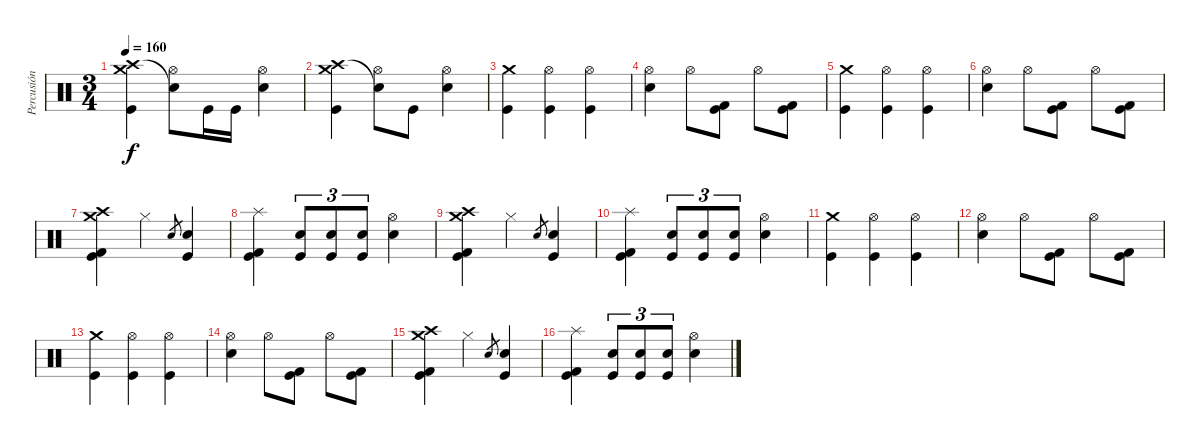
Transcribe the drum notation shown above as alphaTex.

\track ("Percusión" "Percusión") {instrument percussion}
\staff {score}
\articulation defaults
\ts (3 4)
\tempo 160
\clef neutral
\ks c
("Crash medium (hit)" "Crash high (hit)" "Kick (hit)").4{dy f} ("Hi-Hat (open)" "Snare (hit)"{t}).8 "Kick (hit)".16 "Kick (hit)".16 ("Hi-Hat (open)" "Electric Snare (hit)").4 |
("Crash medium (hit)" "Crash high (hit)" "Kick (hit)").4 ("Hi-Hat (open)" "Snare (hit)"{t}).8 "Kick (hit)".8 ("Hi-Hat (open)" "Electric Snare (hit)").4 |
("Crash medium (hit)" "Kick (hit)").4 ("Hi-Hat (open)" "Kick (hit)").4 ("Hi-Hat (open)" "Kick (hit)").4 |
("Hi-Hat (open)" "Electric Snare (hit)").4 "Hi-Hat (open)".8 ("Kick (hit) 2" "Kick (hit)").8 "Hi-Hat (open)".8 ("Kick (hit) 2" "Kick (hit)").8 |
("Crash medium (hit)" "Kick (hit)").4 ("Hi-Hat (open)" "Kick (hit)").4 ("Hi-Hat (open)" "Kick (hit)").4 |
("Hi-Hat (open)" "Electric Snare (hit)").4 "Hi-Hat (open)".8 ("Kick (hit) 2" "Kick (hit)").8 "Hi-Hat (open)".8 ("Kick (hit) 2" "Kick (hit)").8 |
("Crash medium (hit)" "Crash high (hit)" "Kick (hit) 2" "Kick (hit)").4 "Hi-Hat (closed)".4 "Electric Snare (hit)".8{gr} ("Electric Snare (hit)" "Kick (hit)").4 |
("Splash (hit)" "Kick (hit) 2" "Kick (hit)").4 ("Electric Snare (hit)" "Kick (hit)").8{tu (3 2)} ("Electric Snare (hit)" "Kick (hit)").8{tu (3 2)} ("Electric Snare (hit)" "Kick (hit)").8{tu (3 2)} ("Hi-Hat (open)" "Electric Snare (hit)").4 |
("Crash medium (hit)" "Crash high (hit)" "Kick (hit) 2" "Kick (hit)").4 "Hi-Hat (closed)".4 "Electric Snare (hit)".8{gr} ("Electric Snare (hit)" "Kick (hit)").4 |
("Splash (hit)" "Kick (hit) 2" "Kick (hit)").4 ("Electric Snare (hit)" "Kick (hit)").8{tu (3 2)} ("Electric Snare (hit)" "Kick (hit)").8{tu (3 2)} ("Electric Snare (hit)" "Kick (hit)").8{tu (3 2)} ("Hi-Hat (open)" "Electric Snare (hit)").4 |
("Crash medium (hit)" "Kick (hit)").4 ("Hi-Hat (open)" "Kick (hit)").4 ("Hi-Hat (open)" "Kick (hit)").4 |
("Hi-Hat (open)" "Electric Snare (hit)").4 "Hi-Hat (open)".8 ("Kick (hit) 2" "Kick (hit)").8 "Hi-Hat (open)".8 ("Kick (hit) 2" "Kick (hit)").8 |
("Crash medium (hit)" "Kick (hit)").4 ("Hi-Hat (open)" "Kick (hit)").4 ("Hi-Hat (open)" "Kick (hit)").4 |
("Hi-Hat (open)" "Electric Snare (hit)").4 "Hi-Hat (open)".8 ("Kick (hit) 2" "Kick (hit)").8 "Hi-Hat (open)".8 ("Kick (hit) 2" "Kick (hit)").8 |
("Crash medium (hit)" "Crash high (hit)" "Kick (hit) 2" "Kick (hit)").4 "Hi-Hat (closed)".4 "Electric Snare (hit)".8{gr} ("Electric Snare (hit)" "Kick (hit)").4 |
("Splash (hit)" "Kick (hit) 2" "Kick (hit)").4 ("Electric Snare (hit)" "Kick (hit)").8{tu (3 2)} ("Electric Snare (hit)" "Kick (hit)").8{tu (3 2)} ("Electric Snare (hit)" "Kick (hit)").8{tu (3 2)} ("Hi-Hat (open)" "Electric Snare (hit)").4
